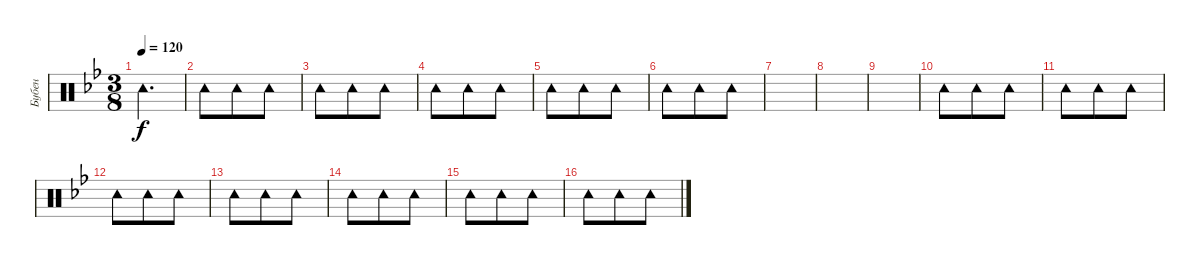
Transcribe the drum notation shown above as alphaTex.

\track ("Бубен" "Бубен") {instrument percussion}
\staff {score}
\articulation defaults
\ts (3 8)
\tempo 120
\clef neutral
\ks gminor "Tambourine (hit)".4{d dy f}
|
"Tambourine (hit)".8 "Tambourine (hit)".8 "Tambourine (hit)".8 |
"Tambourine (hit)".8 "Tambourine (hit)".8 "Tambourine (hit)".8 |
"Tambourine (hit)".8 "Tambourine (hit)".8 "Tambourine (hit)".8 |
"Tambourine (hit)".8 "Tambourine (hit)".8 "Tambourine (hit)".8 |
"Tambourine (hit)".8 "Tambourine (hit)".8 "Tambourine (hit)".8 |
|
|
|
"Tambourine (hit)".8 "Tambourine (hit)".8 "Tambourine (hit)".8 |
"Tambourine (hit)".8 "Tambourine (hit)".8 "Tambourine (hit)".8 |
"Tambourine (hit)".8 "Tambourine (hit)".8 "Tambourine (hit)".8 |
"Tambourine (hit)".8 "Tambourine (hit)".8 "Tambourine (hit)".8 |
"Tambourine (hit)".8 "Tambourine (hit)".8 "Tambourine (hit)".8 |
"Tambourine (hit)".8 "Tambourine (hit)".8 "Tambourine (hit)".8 |
"Tambourine (hit)".8 "Tambourine (hit)".8 "Tambourine (hit)".8
